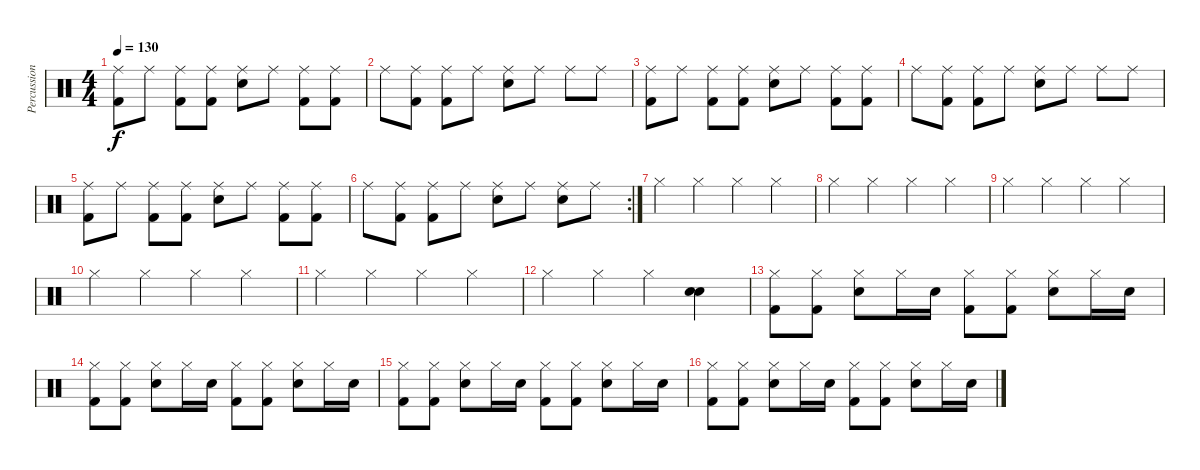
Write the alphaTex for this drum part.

\track ("Percussions" "Percussion") {instrument percussion}
\staff {score}
\articulation defaults
\ts (4 4)
\tempo 130
\clef neutral
\ks c
("Kick (hit) 2" "Ride (middle)").8{dy f} "Ride (middle)".8 ("Kick (hit) 2" "Ride (middle)").8 ("Kick (hit) 2" "Ride (middle)").8 ("Electric Snare (hit)" "Ride (middle)").8 "Ride (middle)".8 ("Kick (hit) 2" "Ride (middle)").8 ("Kick (hit) 2" "Ride (middle)").8 |
"Ride (middle)".8 ("Kick (hit) 2" "Ride (middle)").8 ("Kick (hit) 2" "Ride (middle)").8 "Ride (middle)".8 ("Electric Snare (hit)" "Ride (middle)").8 "Ride (middle)".8 "Ride (middle)".8 "Ride (middle)".8 |
("Kick (hit) 2" "Ride (middle)").8 "Ride (middle)".8 ("Kick (hit) 2" "Ride (middle)").8 ("Kick (hit) 2" "Ride (middle)").8 ("Electric Snare (hit)" "Ride (middle)").8 "Ride (middle)".8 ("Kick (hit) 2" "Ride (middle)").8 ("Kick (hit) 2" "Ride (middle)").8 |
"Ride (middle)".8 ("Kick (hit) 2" "Ride (middle)").8 ("Kick (hit) 2" "Ride (middle)").8 "Ride (middle)".8 ("Electric Snare (hit)" "Ride (middle)").8 "Ride (middle)".8 "Ride (middle)".8 "Ride (middle)".8 |
("Kick (hit) 2" "Ride (middle)").8 "Ride (middle)".8 ("Kick (hit) 2" "Ride (middle)").8 ("Kick (hit) 2" "Ride (middle)").8 ("Electric Snare (hit)" "Ride (middle)").8 "Ride (middle)".8 ("Kick (hit) 2" "Ride (middle)").8 ("Kick (hit) 2" "Ride (middle)").8 |
\rc 2 "Ride (middle)".8
("Kick (hit) 2" "Ride (middle)").8 ("Kick (hit) 2" "Ride (middle)").8 "Ride (middle)".8 ("Electric Snare (hit)" "Ride (middle)").8 "Ride (middle)".8 ("Electric Snare (hit)" "Ride (middle)").8 "Ride (middle)".8 |
"Hi-Hat (closed)".4 "Hi-Hat (closed)".4 "Hi-Hat (closed)".4 "Hi-Hat (closed)".4 |
"Hi-Hat (closed)".4 "Hi-Hat (closed)".4 "Hi-Hat (closed)".4 "Hi-Hat (closed)".4 |
"Hi-Hat (closed)".4 "Hi-Hat (closed)".4 "Hi-Hat (closed)".4 "Hi-Hat (closed)".4 |
"Hi-Hat (closed)".4 "Hi-Hat (closed)".4 "Hi-Hat (closed)".4 "Hi-Hat (closed)".4 |
"Hi-Hat (closed)".4 "Hi-Hat (closed)".4 "Hi-Hat (closed)".4 "Hi-Hat (closed)".4 |
"Hi-Hat (closed)".4 "Hi-Hat (closed)".4 "Hi-Hat (closed)".4 ("Electric Snare (hit)" "Electric Snare (hit)").4{bd 240} |
("Hi-Hat (closed)" "Kick (hit) 2").8 ("Hi-Hat (closed)" "Kick (hit) 2").8 ("Hi-Hat (closed)" "Electric Snare (hit)").8 "Hi-Hat (closed)".16 "Electric Snare (hit)".16 ("Hi-Hat (closed)" "Kick (hit) 2").8 ("Hi-Hat (closed)" "Kick (hit) 2").8 ("Hi-Hat (closed)" "Electric Snare (hit)").8 "Hi-Hat (closed)".16 "Electric Snare (hit)".16 |
("Hi-Hat (closed)" "Kick (hit) 2").8 ("Hi-Hat (closed)" "Kick (hit) 2").8 ("Hi-Hat (closed)" "Electric Snare (hit)").8 "Hi-Hat (closed)".16 "Electric Snare (hit)".16 ("Hi-Hat (closed)" "Kick (hit) 2").8 ("Hi-Hat (closed)" "Kick (hit) 2").8 ("Hi-Hat (closed)" "Electric Snare (hit)").8 "Hi-Hat (closed)".16 "Electric Snare (hit)".16 |
("Hi-Hat (closed)" "Kick (hit) 2").8 ("Hi-Hat (closed)" "Kick (hit) 2").8 ("Hi-Hat (closed)" "Electric Snare (hit)").8 "Hi-Hat (closed)".16 "Electric Snare (hit)".16 ("Hi-Hat (closed)" "Kick (hit) 2").8 ("Hi-Hat (closed)" "Kick (hit) 2").8 ("Hi-Hat (closed)" "Electric Snare (hit)").8 "Hi-Hat (closed)".16 "Electric Snare (hit)".16 |
("Hi-Hat (closed)" "Kick (hit) 2").8 ("Hi-Hat (closed)" "Kick (hit) 2").8 ("Hi-Hat (closed)" "Electric Snare (hit)").8 "Hi-Hat (closed)".16 "Electric Snare (hit)".16 ("Hi-Hat (closed)" "Kick (hit) 2").8 ("Hi-Hat (closed)" "Kick (hit) 2").8 ("Hi-Hat (closed)" "Electric Snare (hit)").8 "Hi-Hat (closed)".16 "Electric Snare (hit)".16
